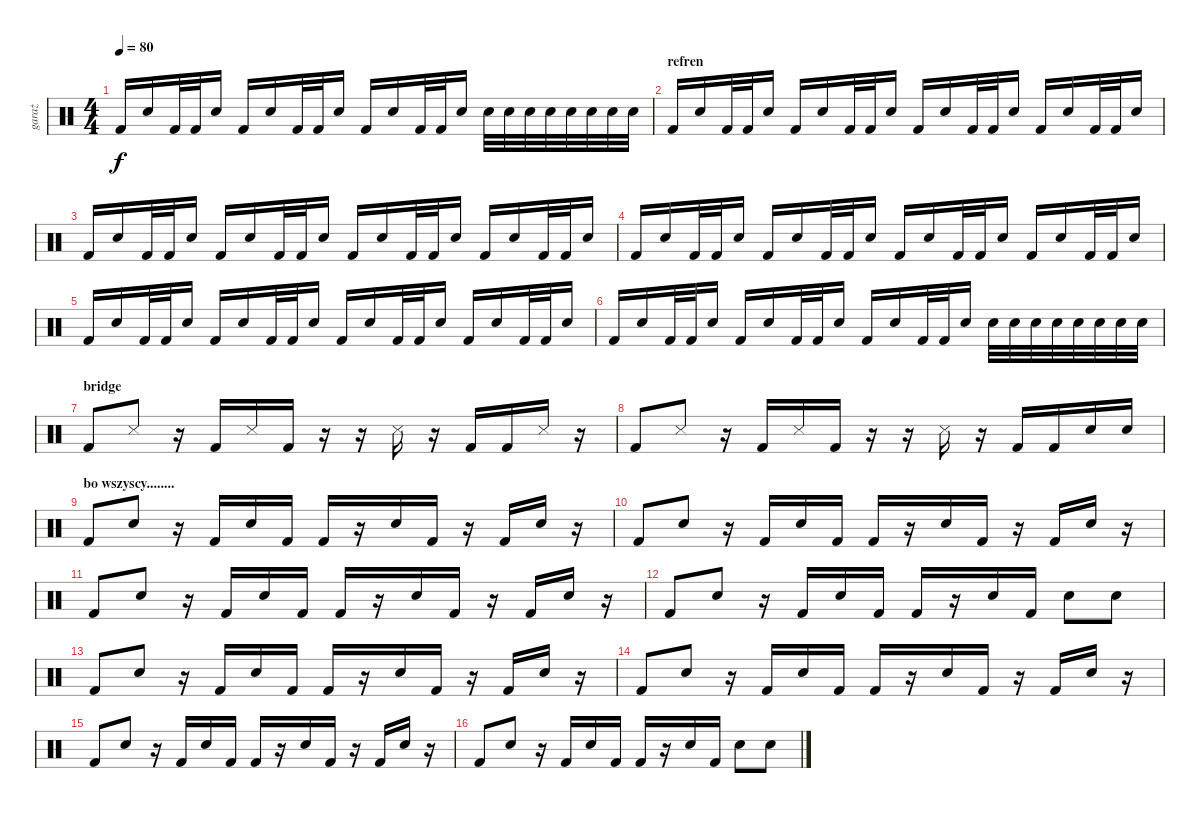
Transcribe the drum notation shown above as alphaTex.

\track ("garaż" "garaż") {instrument percussion}
\staff {score}
\articulation defaults
\ts (4 4)
\tempo 80
\clef neutral
\ks c "Kick (hit) 2".16{dy f} "Snare (hit) 2".16 "Kick (hit) 2".32 "Kick (hit) 2".32 "Snare (hit) 2".16 "Kick (hit) 2".16 "Snare (hit) 2".16 "Kick (hit) 2".32 "Kick (hit) 2".32 "Snare (hit) 2".16 "Kick (hit) 2".16 "Snare (hit) 2".16 "Kick (hit) 2".32 "Kick (hit) 2".32 "Snare (hit) 2".16 "Snare (hit) 2".32 "Snare (hit) 2".32 "Snare (hit) 2".32 "Snare (hit) 2".32 "Snare (hit) 2".32 "Snare (hit) 2".32 "Snare (hit) 2".32 "Snare (hit) 2".32
|
\section ("" "refren")
"Kick (hit) 2".16 "Snare (hit) 2".16 "Kick (hit) 2".32 "Kick (hit) 2".32 "Snare (hit) 2".16 "Kick (hit) 2".16 "Snare (hit) 2".16 "Kick (hit) 2".32 "Kick (hit) 2".32 "Snare (hit) 2".16 "Kick (hit) 2".16 "Snare (hit) 2".16 "Kick (hit) 2".32 "Kick (hit) 2".32 "Snare (hit) 2".16 "Kick (hit) 2".16 "Snare (hit) 2".16 "Kick (hit) 2".32 "Kick (hit) 2".32 "Snare (hit) 2".16 |
"Kick (hit) 2".16 "Snare (hit) 2".16 "Kick (hit) 2".32 "Kick (hit) 2".32 "Snare (hit) 2".16 "Kick (hit) 2".16 "Snare (hit) 2".16 "Kick (hit) 2".32 "Kick (hit) 2".32 "Snare (hit) 2".16 "Kick (hit) 2".16 "Snare (hit) 2".16 "Kick (hit) 2".32 "Kick (hit) 2".32 "Snare (hit) 2".16 "Kick (hit) 2".16 "Snare (hit) 2".16 "Kick (hit) 2".32 "Kick (hit) 2".32 "Snare (hit) 2".16 |
"Kick (hit) 2".16 "Snare (hit) 2".16 "Kick (hit) 2".32 "Kick (hit) 2".32 "Snare (hit) 2".16 "Kick (hit) 2".16 "Snare (hit) 2".16 "Kick (hit) 2".32 "Kick (hit) 2".32 "Snare (hit) 2".16 "Kick (hit) 2".16 "Snare (hit) 2".16 "Kick (hit) 2".32 "Kick (hit) 2".32 "Snare (hit) 2".16 "Kick (hit) 2".16 "Snare (hit) 2".16 "Kick (hit) 2".32 "Kick (hit) 2".32 "Snare (hit) 2".16 |
"Kick (hit) 2".16 "Snare (hit) 2".16 "Kick (hit) 2".32 "Kick (hit) 2".32 "Snare (hit) 2".16 "Kick (hit) 2".16 "Snare (hit) 2".16 "Kick (hit) 2".32 "Kick (hit) 2".32 "Snare (hit) 2".16 "Kick (hit) 2".16 "Snare (hit) 2".16 "Kick (hit) 2".32 "Kick (hit) 2".32 "Snare (hit) 2".16 "Kick (hit) 2".16 "Snare (hit) 2".16 "Kick (hit) 2".32 "Kick (hit) 2".32 "Snare (hit) 2".16 |
"Kick (hit) 2".16 "Snare (hit) 2".16 "Kick (hit) 2".32 "Kick (hit) 2".32 "Snare (hit) 2".16 "Kick (hit) 2".16 "Snare (hit) 2".16 "Kick (hit) 2".32 "Kick (hit) 2".32 "Snare (hit) 2".16 "Kick (hit) 2".16 "Snare (hit) 2".16 "Kick (hit) 2".32 "Kick (hit) 2".32 "Snare (hit) 2".16 "Snare (hit) 2".32 "Snare (hit) 2".32 "Snare (hit) 2".32 "Snare (hit) 2".32 "Snare (hit) 2".32 "Snare (hit) 2".32 "Snare (hit) 2".32 "Snare (hit) 2".32 |
\section ("" "bridge")
"Kick (hit) 2".8 "Snare (side stick) 3".8 r.16 "Kick (hit) 2".16 "Snare (side stick) 3".16 "Kick (hit) 2".16 r.16 r.16 "Snare (side stick) 3".16 r.16 "Kick (hit) 2".16 "Kick (hit) 2".16 "Snare (side stick) 3".16 r.16 |
"Kick (hit) 2".8 "Snare (side stick) 3".8 r.16 "Kick (hit) 2".16 "Snare (side stick) 3".16 "Kick (hit) 2".16 r.16 r.16 "Snare (side stick) 3".16 r.16 "Kick (hit) 2".16 "Kick (hit) 2".16 "Snare (hit) 2".16 "Snare (hit) 2".16 |
\section ("" "bo wszyscy........")
"Kick (hit) 2".8 "Snare (hit) 2".8 r.16 "Kick (hit) 2".16 "Snare (hit) 2".16 "Kick (hit) 2".16 "Kick (hit) 2".16 r.16 "Snare (hit) 2".16 "Kick (hit) 2".16 r.16 "Kick (hit) 2".16 "Snare (hit) 2".16 r.16 |
"Kick (hit) 2".8 "Snare (hit) 2".8 r.16 "Kick (hit) 2".16 "Snare (hit) 2".16 "Kick (hit) 2".16 "Kick (hit) 2".16 r.16 "Snare (hit) 2".16 "Kick (hit) 2".16 r.16 "Kick (hit) 2".16 "Snare (hit) 2".16 r.16 |
"Kick (hit) 2".8 "Snare (hit) 2".8 r.16 "Kick (hit) 2".16 "Snare (hit) 2".16 "Kick (hit) 2".16 "Kick (hit) 2".16 r.16 "Snare (hit) 2".16 "Kick (hit) 2".16 r.16 "Kick (hit) 2".16 "Snare (hit) 2".16 r.16 |
"Kick (hit) 2".8 "Snare (hit) 2".8 r.16 "Kick (hit) 2".16 "Snare (hit) 2".16 "Kick (hit) 2".16 "Kick (hit) 2".16 r.16 "Snare (hit) 2".16 "Kick (hit) 2".16 "Snare (hit) 2".8 "Snare (hit) 2".8 |
"Kick (hit) 2".8 "Snare (hit) 2".8 r.16 "Kick (hit) 2".16 "Snare (hit) 2".16 "Kick (hit) 2".16 "Kick (hit) 2".16 r.16 "Snare (hit) 2".16 "Kick (hit) 2".16 r.16 "Kick (hit) 2".16 "Snare (hit) 2".16 r.16 |
"Kick (hit) 2".8 "Snare (hit) 2".8 r.16 "Kick (hit) 2".16 "Snare (hit) 2".16 "Kick (hit) 2".16 "Kick (hit) 2".16 r.16 "Snare (hit) 2".16 "Kick (hit) 2".16 r.16 "Kick (hit) 2".16 "Snare (hit) 2".16 r.16 |
"Kick (hit) 2".8 "Snare (hit) 2".8 r.16 "Kick (hit) 2".16 "Snare (hit) 2".16 "Kick (hit) 2".16 "Kick (hit) 2".16 r.16 "Snare (hit) 2".16 "Kick (hit) 2".16 r.16 "Kick (hit) 2".16 "Snare (hit) 2".16 r.16 |
"Kick (hit) 2".8 "Snare (hit) 2".8 r.16 "Kick (hit) 2".16 "Snare (hit) 2".16 "Kick (hit) 2".16 "Kick (hit) 2".16 r.16 "Snare (hit) 2".16 "Kick (hit) 2".16 "Snare (hit) 2".8 "Snare (hit) 2".8
